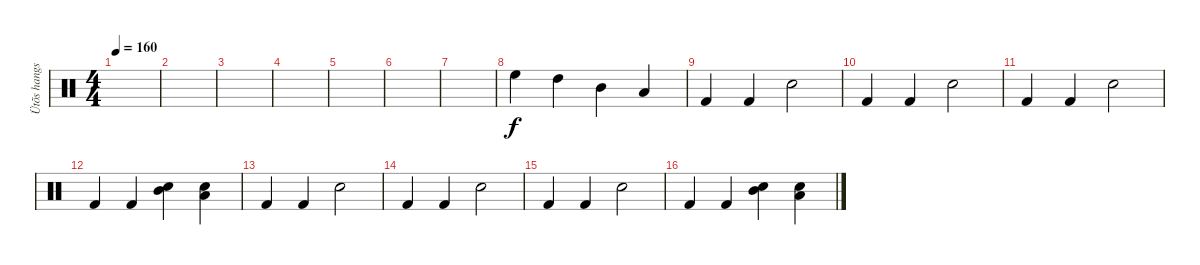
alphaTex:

\track ("Ütõs hangszer" "Ütõs hangs") {instrument percussion}
\staff {score}
\articulation defaults
\ts (4 4)
\tempo 160
\clef neutral
\ks c
|
|
|
|
|
|
|
"High Floor Tom (hit)".4 "High Tom (hit)".4 "Mid Tom (hit)".4 "Low Tom (hit)".4 |
"Kick (hit) 2".4 "Kick (hit) 2".4 "Electric Snare (hit)".2 |
"Kick (hit) 2".4 "Kick (hit) 2".4 "Electric Snare (hit)".2 |
"Kick (hit) 2".4 "Kick (hit) 2".4 "Electric Snare (hit)".2 |
"Kick (hit) 2".4 "Kick (hit) 2".4 ("Electric Snare (hit)" "Mid Tom (hit)").4 ("Electric Snare (hit)" "Low Tom (hit)").4 |
"Kick (hit) 2".4 "Kick (hit) 2".4 "Electric Snare (hit)".2 |
"Kick (hit) 2".4 "Kick (hit) 2".4 "Electric Snare (hit)".2 |
"Kick (hit) 2".4 "Kick (hit) 2".4 "Electric Snare (hit)".2 |
"Kick (hit) 2".4 "Kick (hit) 2".4 ("Electric Snare (hit)" "Mid Tom (hit)").4 ("Electric Snare (hit)" "Low Tom (hit)").4
